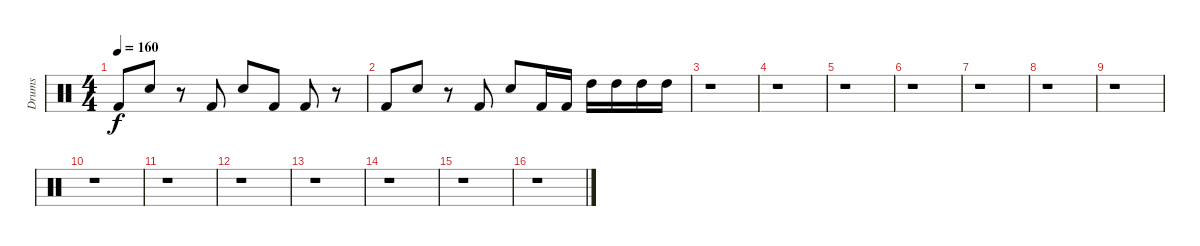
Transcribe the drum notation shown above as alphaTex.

\track ("Drums" "Drums") {instrument percussion}
\staff {score}
\articulation defaults
\ts (4 4)
\tempo 160
\clef neutral
\ks c "Kick (hit) 2".8{dy f} "Electric Snare (hit)".8
r.8 "Kick (hit) 2".8 "Electric Snare (hit)".8 "Kick (hit) 2".8 "Kick (hit) 2".8 r.8 |
"Kick (hit) 2".8 "Electric Snare (hit)".8 r.8 "Kick (hit) 2".8 "Electric Snare (hit)".8 "Kick (hit) 2".16 "Kick (hit) 2".16 "High Tom (hit)".16 "High Tom (hit)".16 "High Tom (hit)".16 "High Tom (hit)".16 |
\section ("" " ")
r.1 |
r.1 |
r.1 |
r.1 |
r.1 |
r.1 |
r.1 |
r.1 |
r.1 |
r.1 |
r.1 |
r.1 |
r.1 |
r.1
